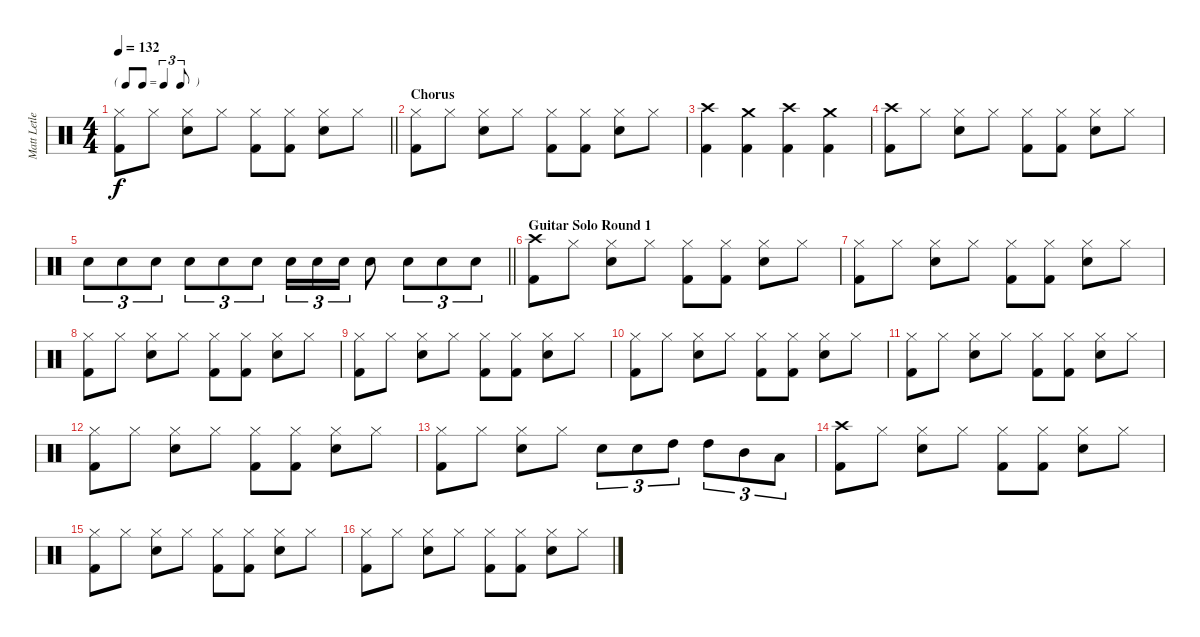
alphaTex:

\track ("Matt Letley" "Matt Letle") {instrument percussion}
\staff {score}
\articulation defaults
\ts (4 4)
\tf triplet8th
\tempo 132
\clef neutral
\barLineRight lightlight
\ks c
("Hi-Hat (closed)" "Kick (hit) 2").8{dy f} "Hi-Hat (closed)".8 ("Hi-Hat (closed)" "Electric Snare (hit)").8 "Hi-Hat (closed)".8 ("Hi-Hat (closed)" "Kick (hit) 2").8 ("Hi-Hat (closed)" "Kick (hit) 2").8 ("Hi-Hat (closed)" "Electric Snare (hit)").8 "Hi-Hat (closed)".8 |
\section ("" "Chorus")
("Hi-Hat (closed)" "Kick (hit) 2").8 "Hi-Hat (closed)".8 ("Hi-Hat (closed)" "Electric Snare (hit)").8 "Hi-Hat (closed)".8 ("Hi-Hat (closed)" "Kick (hit) 2").8 ("Hi-Hat (closed)" "Kick (hit) 2").8 ("Hi-Hat (closed)" "Electric Snare (hit)").8 "Hi-Hat (closed)".8 |
("Crash high (hit)" "Kick (hit) 2").4 ("Crash medium (hit)" "Kick (hit) 2").4 ("Crash high (hit)" "Kick (hit) 2").4 ("Crash medium (hit)" "Kick (hit) 2").4 |
("Crash high (hit)" "Kick (hit) 2").8 "Hi-Hat (closed)".8 ("Hi-Hat (closed)" "Electric Snare (hit)").8 "Hi-Hat (closed)".8 ("Hi-Hat (closed)" "Kick (hit) 2").8 ("Hi-Hat (closed)" "Kick (hit) 2").8 ("Hi-Hat (closed)" "Electric Snare (hit)").8 "Hi-Hat (closed)".8 |
\barLineRight lightlight "Electric Snare (hit)".8{tu (3 2)} "Electric Snare (hit)".8{tu (3 2)} "Electric Snare (hit)".8{tu (3 2)} "Electric Snare (hit)".8{tu (3 2)} "Electric Snare (hit)".8{tu (3 2)} "Electric Snare (hit)".8{tu (3 2)} "Electric Snare (hit)".16{tu (3 2)} "Electric Snare (hit)".16{tu (3 2)} "Electric Snare (hit)".16{tu (3 2)} "Electric Snare (hit)".8 "Electric Snare (hit)".8{tu (3 2)} "Electric Snare (hit)".8{tu (3 2)} "Electric Snare (hit)".8{tu (3 2)}
|
\section ("" "Guitar Solo Round 1")
("Crash high (hit)" "Kick (hit) 2").8 "Hi-Hat (closed)".8 ("Hi-Hat (closed)" "Electric Snare (hit)").8 "Hi-Hat (closed)".8 ("Hi-Hat (closed)" "Kick (hit) 2").8 ("Hi-Hat (closed)" "Kick (hit) 2").8 ("Hi-Hat (closed)" "Electric Snare (hit)").8 "Hi-Hat (closed)".8 |
("Hi-Hat (closed)" "Kick (hit) 2").8 "Hi-Hat (closed)".8 ("Hi-Hat (closed)" "Electric Snare (hit)").8 "Hi-Hat (closed)".8 ("Hi-Hat (closed)" "Kick (hit) 2").8 ("Hi-Hat (closed)" "Kick (hit) 2").8 ("Hi-Hat (closed)" "Electric Snare (hit)").8 "Hi-Hat (closed)".8 |
("Hi-Hat (closed)" "Kick (hit) 2").8 "Hi-Hat (closed)".8 ("Hi-Hat (closed)" "Electric Snare (hit)").8 "Hi-Hat (closed)".8 ("Hi-Hat (closed)" "Kick (hit) 2").8 ("Hi-Hat (closed)" "Kick (hit) 2").8 ("Hi-Hat (closed)" "Electric Snare (hit)").8 "Hi-Hat (closed)".8 |
("Hi-Hat (closed)" "Kick (hit) 2").8 "Hi-Hat (closed)".8 ("Hi-Hat (closed)" "Electric Snare (hit)").8 "Hi-Hat (closed)".8 ("Hi-Hat (closed)" "Kick (hit) 2").8 ("Hi-Hat (closed)" "Kick (hit) 2").8 ("Hi-Hat (closed)" "Electric Snare (hit)").8 "Hi-Hat (closed)".8 |
("Hi-Hat (closed)" "Kick (hit) 2").8 "Hi-Hat (closed)".8 ("Hi-Hat (closed)" "Electric Snare (hit)").8 "Hi-Hat (closed)".8 ("Hi-Hat (closed)" "Kick (hit) 2").8 ("Hi-Hat (closed)" "Kick (hit) 2").8 ("Hi-Hat (closed)" "Electric Snare (hit)").8 "Hi-Hat (closed)".8 |
("Hi-Hat (closed)" "Kick (hit) 2").8 "Hi-Hat (closed)".8 ("Hi-Hat (closed)" "Electric Snare (hit)").8 "Hi-Hat (closed)".8 ("Hi-Hat (closed)" "Kick (hit) 2").8 ("Hi-Hat (closed)" "Kick (hit) 2").8 ("Hi-Hat (closed)" "Electric Snare (hit)").8 "Hi-Hat (closed)".8 |
("Hi-Hat (closed)" "Kick (hit) 2").8 "Hi-Hat (closed)".8 ("Hi-Hat (closed)" "Electric Snare (hit)").8 "Hi-Hat (closed)".8 ("Hi-Hat (closed)" "Kick (hit) 2").8 ("Hi-Hat (closed)" "Kick (hit) 2").8 ("Hi-Hat (closed)" "Electric Snare (hit)").8 "Hi-Hat (closed)".8 |
("Hi-Hat (closed)" "Kick (hit) 2").8 "Hi-Hat (closed)".8 ("Hi-Hat (closed)" "Electric Snare (hit)").8 "Hi-Hat (closed)".8 "Electric Snare (hit)".8{tu (3 2)} "Electric Snare (hit)".8{tu (3 2)} "High Tom (hit)".8{tu (3 2)} "High Tom (hit)".8{tu (3 2)} "Mid Tom (hit)".8{tu (3 2)} "Low Tom (hit)".8{tu (3 2)} |
("Crash high (hit)" "Kick (hit) 2").8 "Hi-Hat (closed)".8 ("Hi-Hat (closed)" "Electric Snare (hit)").8 "Hi-Hat (closed)".8 ("Hi-Hat (closed)" "Kick (hit) 2").8 ("Hi-Hat (closed)" "Kick (hit) 2").8 ("Hi-Hat (closed)" "Electric Snare (hit)").8 "Hi-Hat (closed)".8 |
("Hi-Hat (closed)" "Kick (hit) 2").8 "Hi-Hat (closed)".8 ("Hi-Hat (closed)" "Electric Snare (hit)").8 "Hi-Hat (closed)".8 ("Hi-Hat (closed)" "Kick (hit) 2").8 ("Hi-Hat (closed)" "Kick (hit) 2").8 ("Hi-Hat (closed)" "Electric Snare (hit)").8 "Hi-Hat (closed)".8 |
("Hi-Hat (closed)" "Kick (hit) 2").8 "Hi-Hat (closed)".8 ("Hi-Hat (closed)" "Electric Snare (hit)").8 "Hi-Hat (closed)".8 ("Hi-Hat (closed)" "Kick (hit) 2").8 ("Hi-Hat (closed)" "Kick (hit) 2").8 ("Hi-Hat (closed)" "Electric Snare (hit)").8 "Hi-Hat (closed)".8
